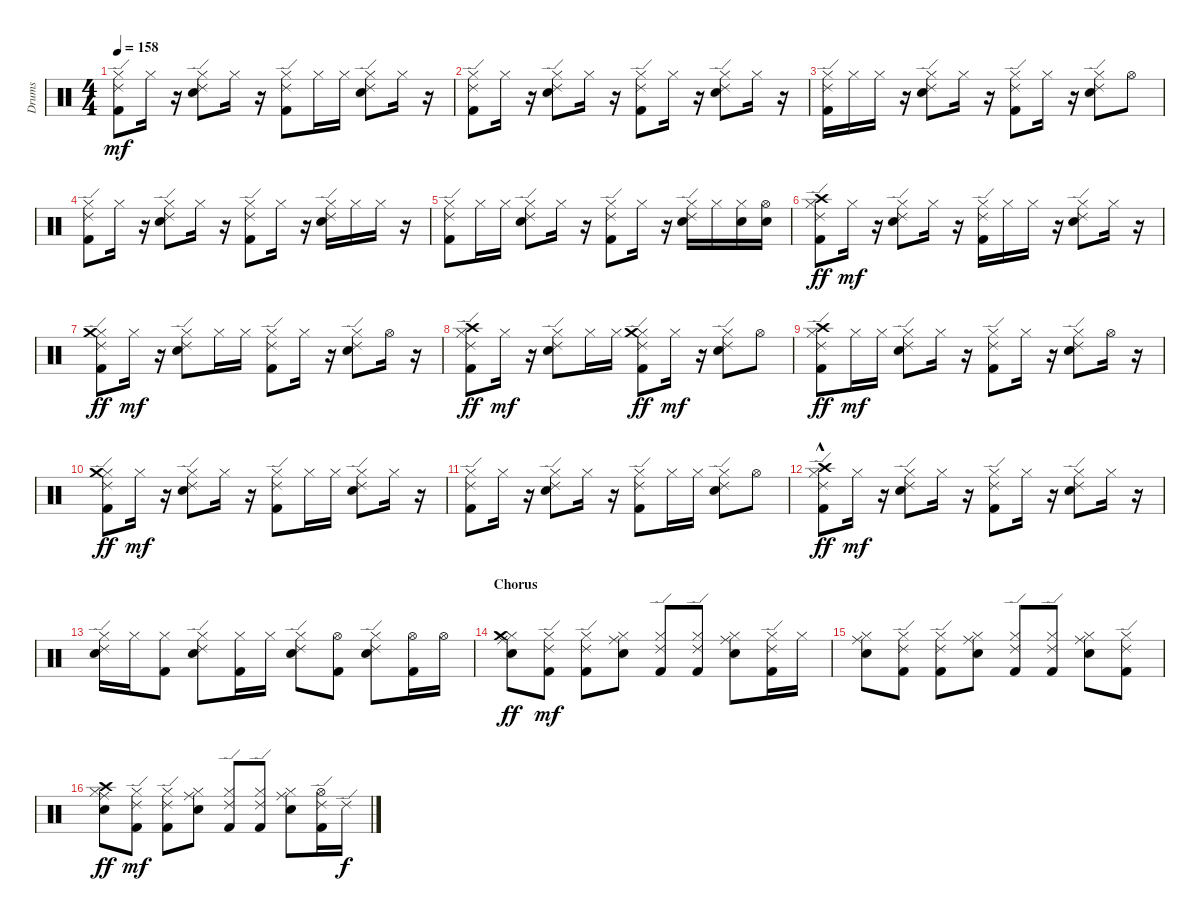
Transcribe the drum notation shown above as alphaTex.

\track ("Drums" "Drums") {instrument percussion}
\staff {score}
\articulation defaults
\ts (4 4)
\tempo 158
\clef neutral
\ks c
("Kick (hit) 2" "Hi-Hat (closed)" "Ride (edge) 2").8{dy mf} "Hi-Hat (closed)".16 r.16 ("Snare (hit) 2" "Hi-Hat (closed)" "Ride (edge) 2").8 "Hi-Hat (closed)".16 r.16 ("Kick (hit) 2" "Hi-Hat (closed)" "Ride (edge) 2").8 "Hi-Hat (closed)".16 "Hi-Hat (closed)".16 ("Snare (hit) 2" "Hi-Hat (closed)" "Ride (edge) 2").8 "Hi-Hat (closed)".16 r.16 |
("Kick (hit) 2" "Hi-Hat (closed)" "Ride (edge) 2").8 "Hi-Hat (closed)".16 r.16 ("Snare (hit) 2" "Hi-Hat (closed)" "Ride (edge) 2").8 "Hi-Hat (closed)".16 r.16 ("Kick (hit) 2" "Hi-Hat (closed)" "Ride (edge) 2").8 "Hi-Hat (closed)".16 r.16 ("Snare (hit) 2" "Hi-Hat (closed)" "Ride (edge) 2").8 "Hi-Hat (closed)".16 r.16 |
("Kick (hit) 2" "Hi-Hat (closed)" "Ride (edge) 2").16 "Hi-Hat (closed)".16 "Hi-Hat (closed)".16 r.16 ("Snare (hit) 2" "Hi-Hat (closed)" "Ride (edge) 2").8 "Hi-Hat (closed)".16 r.16 ("Kick (hit) 2" "Hi-Hat (closed)" "Ride (edge) 2").8 "Hi-Hat (closed)".16 r.16 ("Snare (hit) 2" "Hi-Hat (closed)" "Ride (edge) 2").8 "Hi-Hat (open)".8 |
("Kick (hit) 2" "Hi-Hat (closed)" "Ride (edge) 2").8 "Hi-Hat (closed)".16 r.16 ("Snare (hit) 2" "Hi-Hat (closed)" "Ride (edge) 2").8 "Hi-Hat (closed)".16 r.16 ("Kick (hit) 2" "Hi-Hat (closed)" "Ride (edge) 2").8 "Hi-Hat (closed)".16 r.16 ("Snare (hit) 2" "Hi-Hat (closed)" "Ride (edge) 2").16 "Hi-Hat (closed)".16 "Hi-Hat (closed)".16 r.16 |
("Kick (hit) 2" "Hi-Hat (closed)" "Ride (edge) 2").8 "Hi-Hat (closed)".16 "Hi-Hat (closed)".16 ("Snare (hit) 2" "Hi-Hat (closed)" "Ride (edge) 2").8 "Hi-Hat (closed)".16 r.16 ("Kick (hit) 2" "Hi-Hat (closed)" "Ride (edge) 2").8 "Hi-Hat (closed)".16 r.16 ("Snare (hit) 2" "Hi-Hat (closed)" "Ride (edge) 2").16 "Hi-Hat (closed)".16 ("Snare (hit) 2" "Hi-Hat (closed)").16 ("Snare (hit) 2" "Hi-Hat (open)").16 |
("Kick (hit) 2" "Hi-Hat (closed)" "Ride (edge) 2" "Crash high (hit)").8{dy ff} "Hi-Hat (closed)".16{dy mf} r.16 ("Snare (hit) 2" "Hi-Hat (closed)" "Ride (edge) 2").8 "Hi-Hat (closed)".16 r.16 ("Kick (hit) 2" "Hi-Hat (closed)" "Ride (edge) 2").16 "Hi-Hat (closed)".16 "Hi-Hat (closed)".16 r.16 ("Snare (hit) 2" "Hi-Hat (closed)" "Ride (edge) 2").8 "Hi-Hat (closed)".16 r.16 |
("Kick (hit) 2" "Hi-Hat (closed)" "Ride (edge) 2" "Crash medium (hit)").8{dy ff} "Hi-Hat (closed)".16{dy mf} r.16 ("Snare (hit) 2" "Hi-Hat (closed)" "Ride (edge) 2").8 "Hi-Hat (closed)".16 "Hi-Hat (closed)".16 ("Kick (hit) 2" "Hi-Hat (closed)" "Ride (edge) 2").8 "Hi-Hat (closed)".16 r.16 ("Snare (hit) 2" "Hi-Hat (closed)" "Ride (edge) 2").8 "Hi-Hat (open)".16 r.16 |
("Kick (hit) 2" "Hi-Hat (closed)" "Ride (edge) 2" "Crash high (hit)").8{dy ff} "Hi-Hat (closed)".16{dy mf} r.16 ("Snare (hit) 2" "Hi-Hat (closed)" "Ride (edge) 2").8 "Hi-Hat (closed)".16 "Hi-Hat (closed)".16 ("Kick (hit) 2" "Hi-Hat (closed)" "Ride (edge) 2" "Crash medium (hit)").8{dy ff} "Hi-Hat (closed)".16{dy mf} r.16 ("Snare (hit) 2" "Hi-Hat (closed)" "Ride (edge) 2").8 "Hi-Hat (open)".8 |
("Kick (hit) 2" "Hi-Hat (closed)" "Ride (edge) 2" "Crash high (hit)").8{dy ff} "Hi-Hat (closed)".16{dy mf} "Hi-Hat (closed)".16 ("Snare (hit) 2" "Hi-Hat (closed)" "Ride (edge) 2").8 "Hi-Hat (closed)".16 r.16 ("Kick (hit) 2" "Hi-Hat (closed)" "Ride (edge) 2").8 "Hi-Hat (closed)".16 r.16 ("Snare (hit) 2" "Hi-Hat (closed)" "Ride (edge) 2").8 "Hi-Hat (open)".16 r.16 |
("Kick (hit) 2" "Hi-Hat (closed)" "Ride (edge) 2" "Crash medium (hit)").8{dy ff} "Hi-Hat (closed)".16{dy mf} r.16 ("Snare (hit) 2" "Hi-Hat (closed)" "Ride (edge) 2").8 "Hi-Hat (closed)".16 r.16 ("Kick (hit) 2" "Hi-Hat (closed)" "Ride (edge) 2").8 "Hi-Hat (closed)".16 "Hi-Hat (closed)".16 ("Snare (hit) 2" "Hi-Hat (closed)" "Ride (edge) 2").8 "Hi-Hat (closed)".16 r.16 |
("Kick (hit) 2" "Hi-Hat (closed)" "Ride (edge) 2").8 "Hi-Hat (closed)".16 r.16 ("Snare (hit) 2" "Hi-Hat (closed)" "Ride (edge) 2").8 "Hi-Hat (closed)".16 r.16 ("Kick (hit) 2" "Hi-Hat (closed)" "Ride (edge) 2").8 "Hi-Hat (closed)".16 "Hi-Hat (closed)".16 ("Snare (hit) 2" "Hi-Hat (closed)" "Ride (edge) 2").8 "Hi-Hat (open)".8 |
("Kick (hit) 2" "Hi-Hat (closed)" "Ride (edge) 2" "Crash high (hit)"{hac}).8{dy ff} "Hi-Hat (closed)".16{dy mf} r.16 ("Snare (hit) 2" "Hi-Hat (closed)" "Ride (edge) 2").8 "Hi-Hat (closed)".16 r.16 ("Kick (hit) 2" "Hi-Hat (closed)" "Ride (edge) 2").8 "Hi-Hat (closed)".16 r.16 ("Snare (hit) 2" "Hi-Hat (closed)" "Ride (edge) 2").8 "Hi-Hat (closed)".16 r.16 |
("Snare (hit) 2" "Hi-Hat (closed)" "Ride (edge) 2").16 "Hi-Hat (closed)".16 ("Kick (hit) 2" "Hi-Hat (closed)").8 ("Snare (hit) 2" "Hi-Hat (closed)" "Ride (edge) 2").8 ("Kick (hit) 2" "Hi-Hat (closed)").16 "Hi-Hat (closed)".16 ("Snare (hit) 2" "Hi-Hat (closed)" "Ride (edge) 2").8 ("Kick (hit) 2" "Hi-Hat (open)").8 ("Snare (hit) 2" "Hi-Hat (closed)" "Ride (edge) 2").8 ("Kick (hit) 2" "Hi-Hat (open)").16 "Hi-Hat (open)".16 |
\section ("" "Chorus")
("Snare (hit) 2" "Hi-Hat (closed)" "Ride (middle)" "Crash medium (hit)").8{dy ff} ("Kick (hit) 2" "Hi-Hat (closed)" "Ride (edge) 2").8{dy mf} ("Kick (hit) 2" "Hi-Hat (closed)" "Ride (edge) 2").8 ("Snare (hit) 2" "Hi-Hat (closed)" "Ride (middle)").8 ("Kick (hit) 2" "Hi-Hat (closed)" "Ride (edge) 2").8 ("Kick (hit) 2" "Hi-Hat (closed)" "Ride (edge) 2").8 ("Snare (hit) 2" "Hi-Hat (closed)" "Ride (middle)").8 ("Kick (hit) 2" "Hi-Hat (closed)" "Ride (edge) 2").16 "Hi-Hat (closed)".16 |
("Snare (hit) 2" "Hi-Hat (closed)" "Ride (middle)").8 ("Kick (hit) 2" "Hi-Hat (closed)" "Ride (edge) 2").8 ("Kick (hit) 2" "Hi-Hat (closed)" "Ride (edge) 2").8 ("Snare (hit) 2" "Hi-Hat (closed)" "Ride (middle)").8 ("Kick (hit) 2" "Hi-Hat (closed)" "Ride (edge) 2").8 ("Kick (hit) 2" "Hi-Hat (closed)" "Ride (edge) 2").8 ("Snare (hit) 2" "Hi-Hat (closed)" "Ride (middle)").8 ("Kick (hit) 2" "Hi-Hat (closed)" "Ride (edge) 2").8 |
("Snare (hit) 2" "Hi-Hat (closed)" "Ride (middle)" "Crash high (hit)").8{dy ff} ("Kick (hit) 2" "Hi-Hat (closed)" "Ride (edge) 2").8{dy mf} ("Kick (hit) 2" "Hi-Hat (closed)" "Ride (edge) 2").8 ("Snare (hit) 2" "Hi-Hat (closed)" "Ride (middle)").8 ("Kick (hit) 2" "Hi-Hat (closed)" "Ride (edge) 2").8 ("Kick (hit) 2" "Hi-Hat (closed)" "Ride (edge) 2").8 ("Snare (hit) 2" "Hi-Hat (closed)" "Ride (middle)").8 ("Kick (hit) 2" "Hi-Hat (open)" "Ride (edge) 2").16 "Ride (edge) 2".16{dy f}
